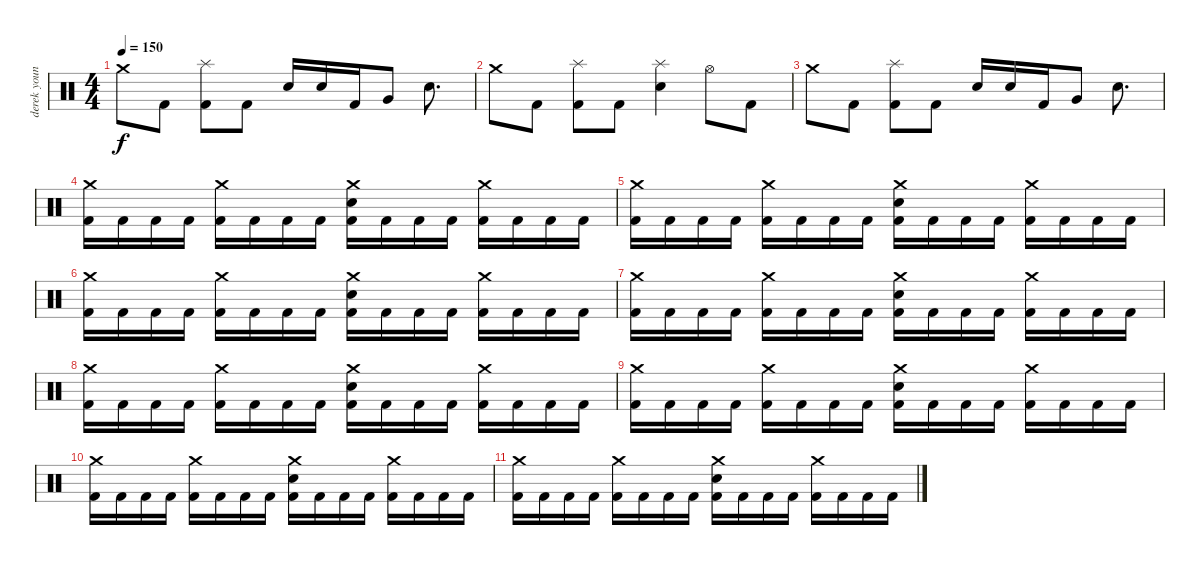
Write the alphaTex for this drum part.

\track ("derek youngsman" "derek youn") {instrument percussion}
\staff {score}
\articulation defaults
\ts (4 4)
\tempo 150
\clef neutral
\ks c "Crash medium (hit)".8{dy f} "Kick (hit) 2".8
("Splash (hit)" "Kick (hit) 2").8 "Kick (hit) 2".8 "Snare (hit) 2".16 "Snare (hit) 2".16 "Kick (hit) 2".16 "Very Low Tom (hit)".8 "Snare (hit) 2".8{d} |
"Crash medium (hit)".8 "Kick (hit) 2".8 ("Splash (hit)" "Kick (hit) 2").8 "Kick (hit) 2".8 ("Splash (hit)" "Snare (hit) 2").4 "Hi-Hat (open)".8 "Kick (hit) 2".8 |
"Crash medium (hit)".8 "Kick (hit) 2".8 ("Splash (hit)" "Kick (hit) 2").8 "Kick (hit) 2".8 "Snare (hit) 2".16 "Snare (hit) 2".16 "Kick (hit) 2".16 "Very Low Tom (hit)".8 "Snare (hit) 2".8{d} |
("Crash medium (hit)" "Kick (hit) 2").16 "Kick (hit) 2".16 "Kick (hit) 2".16 "Kick (hit) 2".16 ("Crash medium (hit)" "Kick (hit) 2").16 "Kick (hit) 2".16 "Kick (hit) 2".16 "Kick (hit) 2".16 ("Crash medium (hit)" "Snare (hit) 2" "Kick (hit) 2").16 "Kick (hit) 2".16 "Kick (hit) 2".16 "Kick (hit) 2".16 ("Crash medium (hit)" "Kick (hit) 2").16 "Kick (hit) 2".16 "Kick (hit) 2".16 "Kick (hit) 2".16 |
("Crash medium (hit)" "Kick (hit) 2").16 "Kick (hit) 2".16 "Kick (hit) 2".16 "Kick (hit) 2".16 ("Crash medium (hit)" "Kick (hit) 2").16 "Kick (hit) 2".16 "Kick (hit) 2".16 "Kick (hit) 2".16 ("Crash medium (hit)" "Snare (hit) 2" "Kick (hit) 2").16 "Kick (hit) 2".16 "Kick (hit) 2".16 "Kick (hit) 2".16 ("Crash medium (hit)" "Kick (hit) 2").16 "Kick (hit) 2".16 "Kick (hit) 2".16 "Kick (hit) 2".16 |
("Crash medium (hit)" "Kick (hit) 2").16 "Kick (hit) 2".16 "Kick (hit) 2".16 "Kick (hit) 2".16 ("Crash medium (hit)" "Kick (hit) 2").16 "Kick (hit) 2".16 "Kick (hit) 2".16 "Kick (hit) 2".16 ("Crash medium (hit)" "Snare (hit) 2" "Kick (hit) 2").16 "Kick (hit) 2".16 "Kick (hit) 2".16 "Kick (hit) 2".16 ("Crash medium (hit)" "Kick (hit) 2").16 "Kick (hit) 2".16 "Kick (hit) 2".16 "Kick (hit) 2".16 |
("Crash medium (hit)" "Kick (hit) 2").16 "Kick (hit) 2".16 "Kick (hit) 2".16 "Kick (hit) 2".16 ("Crash medium (hit)" "Kick (hit) 2").16 "Kick (hit) 2".16 "Kick (hit) 2".16 "Kick (hit) 2".16 ("Crash medium (hit)" "Snare (hit) 2" "Kick (hit) 2").16 "Kick (hit) 2".16 "Kick (hit) 2".16 "Kick (hit) 2".16 ("Crash medium (hit)" "Kick (hit) 2").16 "Kick (hit) 2".16 "Kick (hit) 2".16 "Kick (hit) 2".16 |
("Crash medium (hit)" "Kick (hit) 2").16 "Kick (hit) 2".16 "Kick (hit) 2".16 "Kick (hit) 2".16 ("Crash medium (hit)" "Kick (hit) 2").16 "Kick (hit) 2".16 "Kick (hit) 2".16 "Kick (hit) 2".16 ("Crash medium (hit)" "Snare (hit) 2" "Kick (hit) 2").16 "Kick (hit) 2".16 "Kick (hit) 2".16 "Kick (hit) 2".16 ("Crash medium (hit)" "Kick (hit) 2").16 "Kick (hit) 2".16 "Kick (hit) 2".16 "Kick (hit) 2".16 |
("Crash medium (hit)" "Kick (hit) 2").16 "Kick (hit) 2".16 "Kick (hit) 2".16 "Kick (hit) 2".16 ("Crash medium (hit)" "Kick (hit) 2").16 "Kick (hit) 2".16 "Kick (hit) 2".16 "Kick (hit) 2".16 ("Crash medium (hit)" "Snare (hit) 2" "Kick (hit) 2").16 "Kick (hit) 2".16 "Kick (hit) 2".16 "Kick (hit) 2".16 ("Crash medium (hit)" "Kick (hit) 2").16 "Kick (hit) 2".16 "Kick (hit) 2".16 "Kick (hit) 2".16 |
("Crash medium (hit)" "Kick (hit) 2").16 "Kick (hit) 2".16 "Kick (hit) 2".16 "Kick (hit) 2".16 ("Crash medium (hit)" "Kick (hit) 2").16 "Kick (hit) 2".16 "Kick (hit) 2".16 "Kick (hit) 2".16 ("Crash medium (hit)" "Snare (hit) 2" "Kick (hit) 2").16 "Kick (hit) 2".16 "Kick (hit) 2".16 "Kick (hit) 2".16 ("Crash medium (hit)" "Kick (hit) 2").16 "Kick (hit) 2".16 "Kick (hit) 2".16 "Kick (hit) 2".16 |
("Crash medium (hit)" "Kick (hit) 2").16 "Kick (hit) 2".16 "Kick (hit) 2".16 "Kick (hit) 2".16 ("Crash medium (hit)" "Kick (hit) 2").16 "Kick (hit) 2".16 "Kick (hit) 2".16 "Kick (hit) 2".16 ("Crash medium (hit)" "Snare (hit) 2" "Kick (hit) 2").16 "Kick (hit) 2".16 "Kick (hit) 2".16 "Kick (hit) 2".16 ("Crash medium (hit)" "Kick (hit) 2").16 "Kick (hit) 2".16 "Kick (hit) 2".16 "Kick (hit) 2".16
